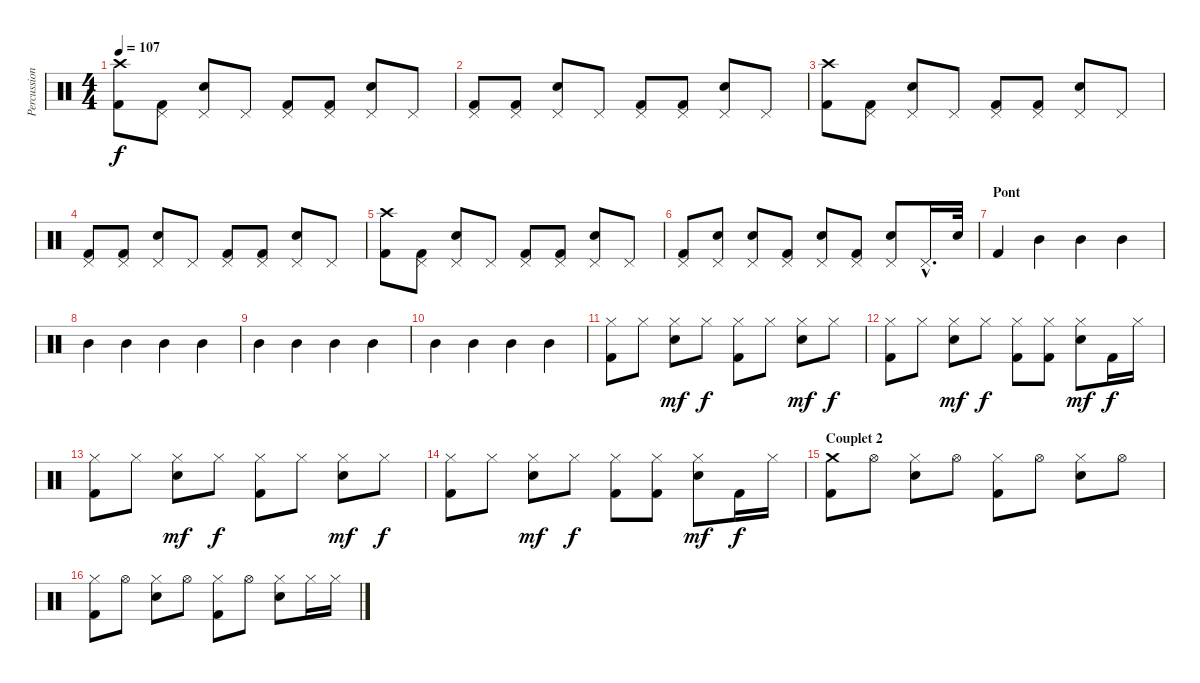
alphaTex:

\track ("Percussions" "Percussion") {instrument percussion}
\staff {score}
\articulation defaults
\ts (4 4)
\tempo 107
\clef neutral
\ks c
("Crash high (hit)" "Kick (hit) 2").8{dy f} ("Pedal Hi-Hat (hit)" "Kick (hit) 2").8 ("Pedal Hi-Hat (hit)" "Electric Snare (hit)").8 "Pedal Hi-Hat (hit)".8 ("Pedal Hi-Hat (hit)" "Kick (hit) 2").8 ("Pedal Hi-Hat (hit)" "Kick (hit) 2").8 ("Pedal Hi-Hat (hit)" "Electric Snare (hit)").8 "Pedal Hi-Hat (hit)".8 |
("Pedal Hi-Hat (hit)" "Kick (hit) 2").8 ("Pedal Hi-Hat (hit)" "Kick (hit) 2").8 ("Pedal Hi-Hat (hit)" "Electric Snare (hit)").8 "Pedal Hi-Hat (hit)".8 ("Pedal Hi-Hat (hit)" "Kick (hit) 2").8 ("Pedal Hi-Hat (hit)" "Kick (hit) 2").8 ("Pedal Hi-Hat (hit)" "Electric Snare (hit)").8 "Pedal Hi-Hat (hit)".8 |
("Crash high (hit)" "Kick (hit) 2").8 ("Pedal Hi-Hat (hit)" "Kick (hit) 2").8 ("Pedal Hi-Hat (hit)" "Electric Snare (hit)").8 "Pedal Hi-Hat (hit)".8 ("Pedal Hi-Hat (hit)" "Kick (hit) 2").8 ("Pedal Hi-Hat (hit)" "Kick (hit) 2").8 ("Pedal Hi-Hat (hit)" "Electric Snare (hit)").8 "Pedal Hi-Hat (hit)".8 |
("Pedal Hi-Hat (hit)" "Kick (hit) 2").8 ("Pedal Hi-Hat (hit)" "Kick (hit) 2").8 ("Pedal Hi-Hat (hit)" "Electric Snare (hit)").8 "Pedal Hi-Hat (hit)".8 ("Pedal Hi-Hat (hit)" "Kick (hit) 2").8 ("Pedal Hi-Hat (hit)" "Kick (hit) 2").8 ("Pedal Hi-Hat (hit)" "Electric Snare (hit)").8 "Pedal Hi-Hat (hit)".8 |
("Crash high (hit)" "Kick (hit) 2").8 ("Pedal Hi-Hat (hit)" "Kick (hit) 2").8 ("Pedal Hi-Hat (hit)" "Electric Snare (hit)").8 "Pedal Hi-Hat (hit)".8 ("Pedal Hi-Hat (hit)" "Kick (hit) 2").8 ("Pedal Hi-Hat (hit)" "Kick (hit) 2").8 ("Pedal Hi-Hat (hit)" "Electric Snare (hit)").8 "Pedal Hi-Hat (hit)".8 |
("Pedal Hi-Hat (hit)" "Kick (hit) 2").8 ("Pedal Hi-Hat (hit)" "Electric Snare (hit)").8 ("Pedal Hi-Hat (hit)" "Electric Snare (hit)").8 ("Pedal Hi-Hat (hit)" "Kick (hit) 2").8 ("Pedal Hi-Hat (hit)" "Electric Snare (hit)").8 ("Pedal Hi-Hat (hit)" "Kick (hit) 2").8 ("Pedal Hi-Hat (hit)" "Electric Snare (hit)").8 "Pedal Hi-Hat (hit)"{hac}.16{d} "Electric Snare (hit)".32 |
\section ("" "Pont")
"Kick (hit) 2".4 "Mid Tom (hit)".4 "Mid Tom (hit)".4 "Mid Tom (hit)".4 |
"Mid Tom (hit)".4 "Mid Tom (hit)".4 "Mid Tom (hit)".4 "Mid Tom (hit)".4 |
"Mid Tom (hit)".4 "Mid Tom (hit)".4 "Mid Tom (hit)".4 "Mid Tom (hit)".4 |
"Mid Tom (hit)".4 "Mid Tom (hit)".4 "Mid Tom (hit)".4 "Mid Tom (hit)".4 |
("Hi-Hat (closed)" "Kick (hit) 2").8 "Hi-Hat (closed)".8 ("Hi-Hat (closed)" "Electric Snare (hit)").8{dy mf} "Hi-Hat (closed)".8{dy f} ("Hi-Hat (closed)" "Kick (hit) 2").8 "Hi-Hat (closed)".8 ("Hi-Hat (closed)" "Electric Snare (hit)").8{dy mf} "Hi-Hat (closed)".8{dy f} |
("Hi-Hat (closed)" "Kick (hit) 2").8 "Hi-Hat (closed)".8 ("Hi-Hat (closed)" "Electric Snare (hit)").8{dy mf} "Hi-Hat (closed)".8{dy f} ("Hi-Hat (closed)" "Kick (hit) 2").8 ("Hi-Hat (closed)" "Kick (hit) 2").8 ("Hi-Hat (closed)" "Electric Snare (hit)").8{dy mf} "Kick (hit) 2".16{dy f} "Hi-Hat (closed)".16 |
("Hi-Hat (closed)" "Kick (hit) 2").8 "Hi-Hat (closed)".8 ("Hi-Hat (closed)" "Electric Snare (hit)").8{dy mf} "Hi-Hat (closed)".8{dy f} ("Hi-Hat (closed)" "Kick (hit) 2").8 "Hi-Hat (closed)".8 ("Hi-Hat (closed)" "Electric Snare (hit)").8{dy mf} "Hi-Hat (closed)".8{dy f} |
("Hi-Hat (closed)" "Kick (hit) 2").8 "Hi-Hat (closed)".8 ("Hi-Hat (closed)" "Electric Snare (hit)").8{dy mf} "Hi-Hat (closed)".8{dy f} ("Hi-Hat (closed)" "Kick (hit) 2").8 ("Hi-Hat (closed)" "Kick (hit) 2").8 ("Hi-Hat (closed)" "Electric Snare (hit)").8{dy mf} "Kick (hit) 2".16{dy f} "Hi-Hat (closed)".16 |
\section ("" "Couplet 2 ")
("Crash medium (hit)" "Kick (hit) 2").8 "Hi-Hat (open)".8 ("Hi-Hat (closed)" "Electric Snare (hit)").8 "Hi-Hat (open)".8 ("Hi-Hat (closed)" "Kick (hit) 2").8 "Hi-Hat (open)".8 ("Hi-Hat (closed)" "Electric Snare (hit)").8 "Hi-Hat (open)".8 |
("Hi-Hat (closed)" "Kick (hit) 2").8 "Hi-Hat (open)".8 ("Hi-Hat (closed)" "Electric Snare (hit)").8 "Hi-Hat (open)".8 ("Hi-Hat (closed)" "Kick (hit) 2").8 "Hi-Hat (open)".8 ("Hi-Hat (closed)" "Electric Snare (hit)").8 "Hi-Hat (closed)".16 "Hi-Hat (closed)".16
